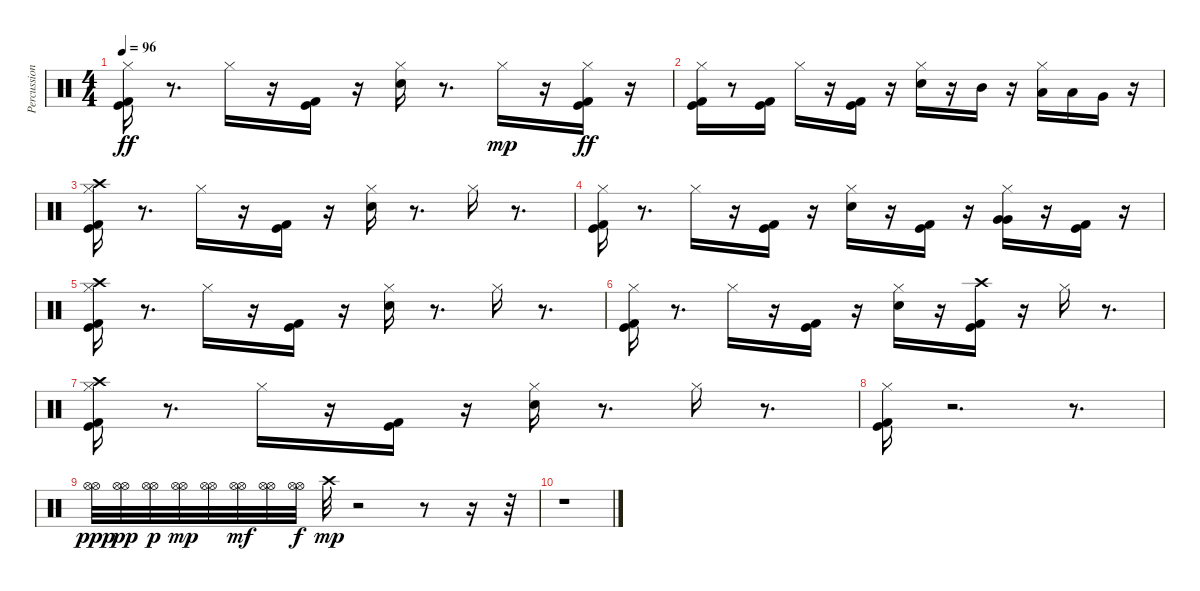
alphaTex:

\track ("Percussion" "Percussion") {instrument percussion}
\staff {score}
\articulation defaults
\ts (4 4)
\tempo 96
\clef neutral
\ks c
("Hi-Hat (closed)" "Kick (hit) 2" "Kick (hit)").16{dy ff} r.8{d} "Hi-Hat (closed)".16 r.16 ("Kick (hit)" "Kick (hit) 2").16 r.16 ("Electric Snare (hit)" "Hi-Hat (closed)").16 r.8{d} "Hi-Hat (closed)".16{dy mp} r.16 ("Hi-Hat (closed)" "Kick (hit)" "Kick (hit) 2").16{dy ff} r.16 |
("Hi-Hat (closed)" "Kick (hit)" "Kick (hit) 2").16 r.8 ("Kick (hit)" "Kick (hit) 2").16 "Hi-Hat (closed)".16 r.16 ("Kick (hit)" "Kick (hit) 2").16 r.16 ("Electric Snare (hit)" "Hi-Hat (closed)").16 r.16 "Mid Tom (hit)".16 r.16 ("Low Tom (hit)" "Hi-Hat (closed)").16 "Low Tom (hit)".16 "Very Low Tom (hit)".16 r.16 |
("Hi-Hat (closed)" "Crash high (hit)" "Kick (hit)" "Kick (hit) 2").16 r.8{d} "Hi-Hat (closed)".16 r.16 ("Kick (hit)" "Kick (hit) 2").16 r.16 ("Electric Snare (hit)" "Hi-Hat (closed)").16 r.8{d} "Hi-Hat (closed)".16 r.8{d} |
("Hi-Hat (closed)" "Kick (hit) 2" "Kick (hit)").16 r.8{d} "Hi-Hat (closed)".16 r.16 ("Kick (hit)" "Kick (hit) 2").16 r.16 ("Electric Snare (hit)" "Hi-Hat (closed)").16 r.16 ("Kick (hit)" "Kick (hit) 2").16 r.16 ("Hi-Hat (closed)" "Very Low Tom (hit)" "Very Low Tom (hit)").16 r.16 ("Kick (hit)" "Kick (hit) 2").16 r.16 |
("Hi-Hat (closed)" "Crash high (hit)" "Kick (hit)" "Kick (hit) 2").16 r.8{d} "Hi-Hat (closed)".16 r.16 ("Kick (hit)" "Kick (hit) 2").16 r.16 ("Electric Snare (hit)" "Hi-Hat (closed)").16 r.8{d} "Hi-Hat (closed)".16 r.8{d} |
("Hi-Hat (closed)" "Kick (hit) 2" "Kick (hit)").16 r.8{d} "Hi-Hat (closed)".16 r.16 ("Kick (hit)" "Kick (hit) 2").16 r.16 ("Electric Snare (hit)" "Hi-Hat (closed)").16 r.16 ("Crash high (hit)" "Kick (hit)" "Kick (hit) 2").16 r.16 "Hi-Hat (closed)".16 r.8{d} |
("Hi-Hat (closed)" "Crash high (hit)" "Kick (hit)" "Kick (hit) 2").16 r.8{d} "Hi-Hat (closed)".16 r.16 ("Kick (hit)" "Kick (hit) 2").16 r.16 ("Electric Snare (hit)" "Hi-Hat (closed)").16 r.8{d} "Hi-Hat (closed)".16 r.8{d} |
("Hi-Hat (closed)" "Kick (hit)" "Kick (hit) 2").16 r.2{d} r.8{d} |
("Hi-Hat (open)" "Hi-Hat (open)").32{dy ppp} ("Hi-Hat (open)" "Hi-Hat (open)").32{dy pp} ("Hi-Hat (open)" "Hi-Hat (open)").32{dy p} ("Hi-Hat (open)" "Hi-Hat (open)").32{dy mp} ("Hi-Hat (open)" "Hi-Hat (open)").32 ("Hi-Hat (open)" "Hi-Hat (open)").32{dy mf} ("Hi-Hat (open)" "Hi-Hat (open)").32 ("Hi-Hat (open)" "Hi-Hat (open)").32{dy f} "Crash high (hit)".32{dy mp} r.2 r.8 r.16 r.32 |
r.1
